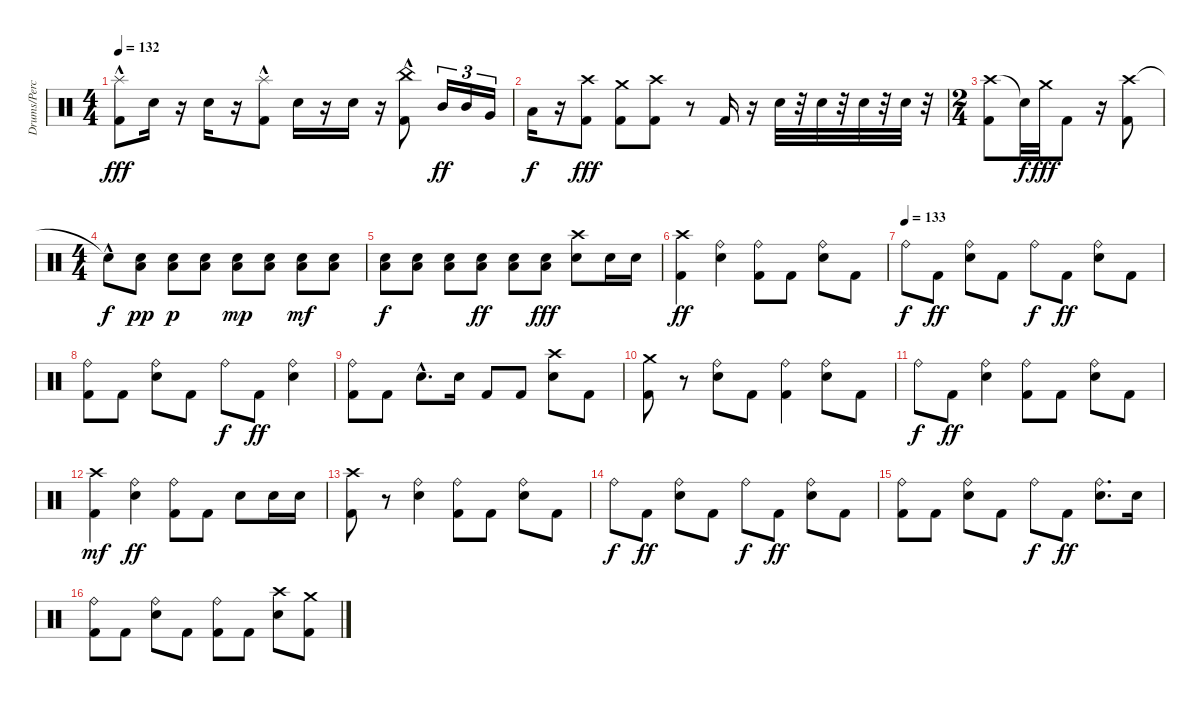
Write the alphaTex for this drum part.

\track ("Drums/Percussion" "Drums/Perc") {instrument percussion}
\staff {score}
\articulation defaults
\ts (4 4)
\tempo 132
\clef neutral
\ks c
("Kick (hit) 2" "Splash (hit)"{hac}).8{dy fff} "Snare (hit) 2".16 r.16 "Snare (hit) 2".16 r.16 ("Kick (hit) 2" "Splash (hit)"{hac}).8 "Snare (hit) 2".16 r.16 "Snare (hit) 2".16 r.16 ("Kick (hit) 2" "China (hit)"{hac}).8 "Mid Tom (hit)".16{tu (3 2) dy ff} "Mid Tom (hit)".16{tu (3 2)} "Very Low Tom (hit)".16{tu (3 2)} |
"Low Floor Tom (hit)".16{dy f} r.16 ("Crash high (hit)" "Kick (hit) 2").8{dy fff} ("Crash medium (hit)" "Kick (hit) 2").8 ("Crash high (hit)" "Kick (hit) 2").8 r.8 "Kick (hit) 2".16 r.16 "Snare (hit) 2".32 r.32 "Snare (hit) 2".32 r.32 "Snare (hit) 2".32 r.32 "Snare (hit) 2".32 r.32 |
\ts (2 4)
("Crash high (hit)" "Kick (hit) 2").8 "Snare (hit)"{t}.32{dy f} "Crash medium (hit)".32{dy fff} "Kick (hit) 2".8 r.16 ("Crash high (hit)" "Kick (hit) 2").8 |
\ts (4 4)
"Snare (hit)"{hac t}.8{dy f} ("Snare (hit) 2" "Low Floor Tom (hit)").8{dy pp} ("Snare (hit) 2" "Low Floor Tom (hit)").8{dy p} ("Snare (hit) 2" "Low Floor Tom (hit)").8 ("Snare (hit) 2" "Low Floor Tom (hit)").8{dy mp} ("Snare (hit) 2" "Low Floor Tom (hit)").8 ("Snare (hit) 2" "Low Floor Tom (hit)").8{dy mf} ("Snare (hit) 2" "Low Floor Tom (hit)").8 |
("Snare (hit) 2" "Low Floor Tom (hit)").8{dy f} ("Snare (hit) 2" "Low Floor Tom (hit)").8 ("Snare (hit) 2" "Low Floor Tom (hit)").8 ("Snare (hit) 2" "Low Floor Tom (hit)").8{dy ff} ("Snare (hit) 2" "Low Floor Tom (hit)").8 ("Snare (hit) 2" "Low Floor Tom (hit)").8{dy fff} ("Snare (hit) 2" "Crash high (hit)").8 "Snare (hit) 2".16 "Snare (hit) 2".16 |
("Kick (hit) 2" "Crash high (hit)").4{dy ff} ("Snare (hit) 2" "Ride (bell)").4 ("Kick (hit) 2" "Ride (bell)").8 "Kick (hit) 2".8 ("Snare (hit) 2" "Ride (bell)").8 "Kick (hit) 2".8 |
\tempo (133)
"Ride (bell)".8{dy f} "Kick (hit) 2".8{dy ff} ("Snare (hit) 2" "Ride (bell)").8 "Kick (hit) 2".8 "Ride (bell)".8{dy f} "Kick (hit) 2".8{dy ff} ("Snare (hit) 2" "Ride (bell)").8 "Kick (hit) 2".8 |
("Kick (hit) 2" "Ride (bell)").8 "Kick (hit) 2".8 ("Snare (hit) 2" "Ride (bell)").8 "Kick (hit) 2".8 "Ride (bell)".8{dy f} "Kick (hit) 2".8{dy ff} ("Snare (hit) 2" "Ride (bell)").4 |
("Kick (hit) 2" "Ride (bell)").8 "Kick (hit) 2".8 "Snare (hit) 2"{hac}.8{d} "Snare (hit) 2".16 "Kick (hit) 2".8 "Kick (hit) 2".8 ("Snare (hit) 2" "Crash high (hit)").8 "Kick (hit) 2".8 |
("Kick (hit) 2" "Crash medium (hit)").8 r.8 ("Snare (hit) 2" "Ride (bell)").8 "Kick (hit) 2".8 ("Kick (hit) 2" "Ride (bell)").4 ("Snare (hit) 2" "Ride (bell)").8 "Kick (hit) 2".8 |
"Ride (bell)".8{dy f} "Kick (hit) 2".8{dy ff} ("Snare (hit) 2" "Ride (bell)").4 ("Kick (hit) 2" "Ride (bell)").8 "Kick (hit) 2".8 ("Snare (hit) 2" "Ride (bell)").8 "Kick (hit) 2".8 |
("Kick (hit) 2" "Crash high (hit)").4{dy mf} ("Snare (hit) 2" "Ride (bell)").4{dy ff} ("Kick (hit) 2" "Ride (bell)").8 "Kick (hit) 2".8 "Snare (hit) 2".8 "Snare (hit) 2".16 "Snare (hit) 2".16 |
("Kick (hit) 2" "Crash high (hit)").8 r.8 ("Snare (hit) 2" "Ride (bell)").4 ("Kick (hit) 2" "Ride (bell)").8 "Kick (hit) 2".8 ("Snare (hit) 2" "Ride (bell)").8 "Kick (hit) 2".8 |
"Ride (bell)".8{dy f} "Kick (hit) 2".8{dy ff} ("Snare (hit) 2" "Ride (bell)").8 "Kick (hit) 2".8 "Ride (bell)".8{dy f} "Kick (hit) 2".8{dy ff} ("Snare (hit) 2" "Ride (bell)").8 "Kick (hit) 2".8 |
("Kick (hit) 2" "Ride (bell)").8 "Kick (hit) 2".8 ("Snare (hit) 2" "Ride (bell)").8 "Kick (hit) 2".8 "Ride (bell)".8{dy f} "Kick (hit) 2".8{dy ff} ("Snare (hit) 2" "Ride (bell)").8{d} "Snare (hit) 2".16 |
("Kick (hit) 2" "Ride (bell)").8 "Kick (hit) 2".8 ("Snare (hit) 2" "Ride (bell)").8 "Kick (hit) 2".8 ("Kick (hit) 2" "Ride (bell)").8 "Kick (hit) 2".8 ("Snare (hit) 2" "Crash high (hit)").8 ("Kick (hit) 2" "Crash medium (hit)").8
